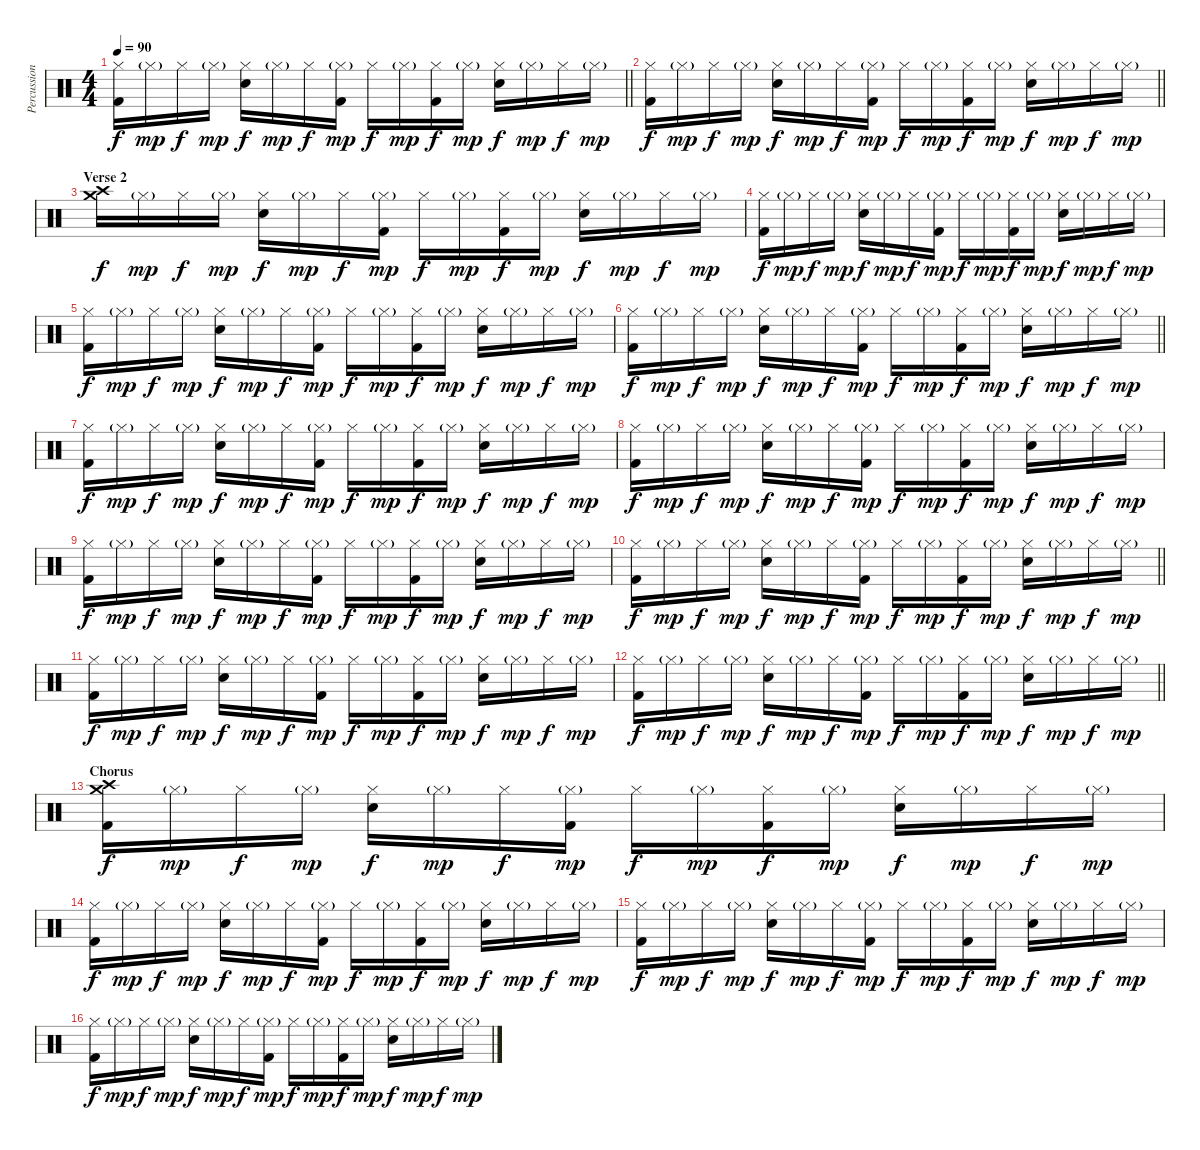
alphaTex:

\track ("Percussion" "Percussion") {instrument percussion}
\staff {score}
\articulation defaults
\ts (4 4)
\tempo 90
\clef neutral
\barLineRight lightlight
\ks c
("Hi-Hat (closed)" "Kick (hit) 2").16{dy f} "Hi-Hat (closed)"{g}.16{dy mp} "Hi-Hat (closed)".16{dy f} "Hi-Hat (closed)"{g}.16{dy mp} ("Hi-Hat (closed)" "Electric Snare (hit)").16{dy f} "Hi-Hat (closed)"{g}.16{dy mp} "Hi-Hat (closed)".16{dy f} ("Hi-Hat (closed)"{g} "Kick (hit) 2").16{dy mp} "Hi-Hat (closed)".16{dy f} "Hi-Hat (closed)"{g}.16{dy mp} ("Hi-Hat (closed)" "Kick (hit) 2").16{dy f} "Hi-Hat (closed)"{g}.16{dy mp} ("Hi-Hat (closed)" "Electric Snare (hit)").16{dy f} "Hi-Hat (closed)"{g}.16{dy mp} "Hi-Hat (closed)".16{dy f} "Hi-Hat (closed)"{g}.16{dy mp} |
\barLineRight lightlight
("Hi-Hat (closed)" "Kick (hit) 2").16{dy f} "Hi-Hat (closed)"{g}.16{dy mp} "Hi-Hat (closed)".16{dy f} "Hi-Hat (closed)"{g}.16{dy mp} ("Hi-Hat (closed)" "Electric Snare (hit)").16{dy f} "Hi-Hat (closed)"{g}.16{dy mp} "Hi-Hat (closed)".16{dy f} ("Hi-Hat (closed)"{g} "Kick (hit) 2").16{dy mp} "Hi-Hat (closed)".16{dy f} "Hi-Hat (closed)"{g}.16{dy mp} ("Hi-Hat (closed)" "Kick (hit) 2").16{dy f} "Hi-Hat (closed)"{g}.16{dy mp} ("Hi-Hat (closed)" "Electric Snare (hit)").16{dy f} "Hi-Hat (closed)"{g}.16{dy mp} "Hi-Hat (closed)".16{dy f} "Hi-Hat (closed)"{g}.16{dy mp} |
\section ("" "Verse 2")
("Crash medium (hit)" "Crash high (hit)").16{dy f} "Hi-Hat (closed)"{g}.16{dy mp} "Hi-Hat (closed)".16{dy f} "Hi-Hat (closed)"{g}.16{dy mp} ("Hi-Hat (closed)" "Electric Snare (hit)").16{dy f} "Hi-Hat (closed)"{g}.16{dy mp} "Hi-Hat (closed)".16{dy f} ("Hi-Hat (closed)"{g} "Kick (hit) 2").16{dy mp} "Hi-Hat (closed)".16{dy f} "Hi-Hat (closed)"{g}.16{dy mp} ("Hi-Hat (closed)" "Kick (hit) 2").16{dy f} "Hi-Hat (closed)"{g}.16{dy mp} ("Hi-Hat (closed)" "Electric Snare (hit)").16{dy f} "Hi-Hat (closed)"{g}.16{dy mp} "Hi-Hat (closed)".16{dy f} "Hi-Hat (closed)"{g}.16{dy mp} |
("Hi-Hat (closed)" "Kick (hit) 2").16{dy f} "Hi-Hat (closed)"{g}.16{dy mp} "Hi-Hat (closed)".16{dy f} "Hi-Hat (closed)"{g}.16{dy mp} ("Hi-Hat (closed)" "Electric Snare (hit)").16{dy f} "Hi-Hat (closed)"{g}.16{dy mp} "Hi-Hat (closed)".16{dy f} ("Hi-Hat (closed)"{g} "Kick (hit) 2").16{dy mp} "Hi-Hat (closed)".16{dy f} "Hi-Hat (closed)"{g}.16{dy mp} ("Hi-Hat (closed)" "Kick (hit) 2").16{dy f} "Hi-Hat (closed)"{g}.16{dy mp} ("Hi-Hat (closed)" "Electric Snare (hit)").16{dy f} "Hi-Hat (closed)"{g}.16{dy mp} "Hi-Hat (closed)".16{dy f} "Hi-Hat (closed)"{g}.16{dy mp} |
("Hi-Hat (closed)" "Kick (hit) 2").16{dy f} "Hi-Hat (closed)"{g}.16{dy mp} "Hi-Hat (closed)".16{dy f} "Hi-Hat (closed)"{g}.16{dy mp} ("Hi-Hat (closed)" "Electric Snare (hit)").16{dy f} "Hi-Hat (closed)"{g}.16{dy mp} "Hi-Hat (closed)".16{dy f} ("Hi-Hat (closed)"{g} "Kick (hit) 2").16{dy mp} "Hi-Hat (closed)".16{dy f} "Hi-Hat (closed)"{g}.16{dy mp} ("Hi-Hat (closed)" "Kick (hit) 2").16{dy f} "Hi-Hat (closed)"{g}.16{dy mp} ("Hi-Hat (closed)" "Electric Snare (hit)").16{dy f} "Hi-Hat (closed)"{g}.16{dy mp} "Hi-Hat (closed)".16{dy f} "Hi-Hat (closed)"{g}.16{dy mp} |
\barLineRight lightlight
("Hi-Hat (closed)" "Kick (hit) 2").16{dy f} "Hi-Hat (closed)"{g}.16{dy mp} "Hi-Hat (closed)".16{dy f} "Hi-Hat (closed)"{g}.16{dy mp} ("Hi-Hat (closed)" "Electric Snare (hit)").16{dy f} "Hi-Hat (closed)"{g}.16{dy mp} "Hi-Hat (closed)".16{dy f} ("Hi-Hat (closed)"{g} "Kick (hit) 2").16{dy mp} "Hi-Hat (closed)".16{dy f} "Hi-Hat (closed)"{g}.16{dy mp} ("Hi-Hat (closed)" "Kick (hit) 2").16{dy f} "Hi-Hat (closed)"{g}.16{dy mp} ("Hi-Hat (closed)" "Electric Snare (hit)").16{dy f} "Hi-Hat (closed)"{g}.16{dy mp} "Hi-Hat (closed)".16{dy f} "Hi-Hat (closed)"{g}.16{dy mp} |
("Hi-Hat (closed)" "Kick (hit) 2").16{dy f} "Hi-Hat (closed)"{g}.16{dy mp} "Hi-Hat (closed)".16{dy f} "Hi-Hat (closed)"{g}.16{dy mp} ("Hi-Hat (closed)" "Electric Snare (hit)").16{dy f} "Hi-Hat (closed)"{g}.16{dy mp} "Hi-Hat (closed)".16{dy f} ("Hi-Hat (closed)"{g} "Kick (hit) 2").16{dy mp} "Hi-Hat (closed)".16{dy f} "Hi-Hat (closed)"{g}.16{dy mp} ("Hi-Hat (closed)" "Kick (hit) 2").16{dy f} "Hi-Hat (closed)"{g}.16{dy mp} ("Hi-Hat (closed)" "Electric Snare (hit)").16{dy f} "Hi-Hat (closed)"{g}.16{dy mp} "Hi-Hat (closed)".16{dy f} "Hi-Hat (closed)"{g}.16{dy mp} |
("Hi-Hat (closed)" "Kick (hit) 2").16{dy f} "Hi-Hat (closed)"{g}.16{dy mp} "Hi-Hat (closed)".16{dy f} "Hi-Hat (closed)"{g}.16{dy mp} ("Hi-Hat (closed)" "Electric Snare (hit)").16{dy f} "Hi-Hat (closed)"{g}.16{dy mp} "Hi-Hat (closed)".16{dy f} ("Hi-Hat (closed)"{g} "Kick (hit) 2").16{dy mp} "Hi-Hat (closed)".16{dy f} "Hi-Hat (closed)"{g}.16{dy mp} ("Hi-Hat (closed)" "Kick (hit) 2").16{dy f} "Hi-Hat (closed)"{g}.16{dy mp} ("Hi-Hat (closed)" "Electric Snare (hit)").16{dy f} "Hi-Hat (closed)"{g}.16{dy mp} "Hi-Hat (closed)".16{dy f} "Hi-Hat (closed)"{g}.16{dy mp} |
("Hi-Hat (closed)" "Kick (hit) 2").16{dy f} "Hi-Hat (closed)"{g}.16{dy mp} "Hi-Hat (closed)".16{dy f} "Hi-Hat (closed)"{g}.16{dy mp} ("Hi-Hat (closed)" "Electric Snare (hit)").16{dy f} "Hi-Hat (closed)"{g}.16{dy mp} "Hi-Hat (closed)".16{dy f} ("Hi-Hat (closed)"{g} "Kick (hit) 2").16{dy mp} "Hi-Hat (closed)".16{dy f} "Hi-Hat (closed)"{g}.16{dy mp} ("Hi-Hat (closed)" "Kick (hit) 2").16{dy f} "Hi-Hat (closed)"{g}.16{dy mp} ("Hi-Hat (closed)" "Electric Snare (hit)").16{dy f} "Hi-Hat (closed)"{g}.16{dy mp} "Hi-Hat (closed)".16{dy f} "Hi-Hat (closed)"{g}.16{dy mp} |
\barLineRight lightlight
("Hi-Hat (closed)" "Kick (hit) 2").16{dy f} "Hi-Hat (closed)"{g}.16{dy mp} "Hi-Hat (closed)".16{dy f} "Hi-Hat (closed)"{g}.16{dy mp} ("Hi-Hat (closed)" "Electric Snare (hit)").16{dy f} "Hi-Hat (closed)"{g}.16{dy mp} "Hi-Hat (closed)".16{dy f} ("Hi-Hat (closed)"{g} "Kick (hit) 2").16{dy mp} "Hi-Hat (closed)".16{dy f} "Hi-Hat (closed)"{g}.16{dy mp} ("Hi-Hat (closed)" "Kick (hit) 2").16{dy f} "Hi-Hat (closed)"{g}.16{dy mp} ("Hi-Hat (closed)" "Electric Snare (hit)").16{dy f} "Hi-Hat (closed)"{g}.16{dy mp} "Hi-Hat (closed)".16{dy f} "Hi-Hat (closed)"{g}.16{dy mp} |
("Hi-Hat (closed)" "Kick (hit) 2").16{dy f} "Hi-Hat (closed)"{g}.16{dy mp} "Hi-Hat (closed)".16{dy f} "Hi-Hat (closed)"{g}.16{dy mp} ("Hi-Hat (closed)" "Electric Snare (hit)").16{dy f} "Hi-Hat (closed)"{g}.16{dy mp} "Hi-Hat (closed)".16{dy f} ("Hi-Hat (closed)"{g} "Kick (hit) 2").16{dy mp} "Hi-Hat (closed)".16{dy f} "Hi-Hat (closed)"{g}.16{dy mp} ("Hi-Hat (closed)" "Kick (hit) 2").16{dy f} "Hi-Hat (closed)"{g}.16{dy mp} ("Hi-Hat (closed)" "Electric Snare (hit)").16{dy f} "Hi-Hat (closed)"{g}.16{dy mp} "Hi-Hat (closed)".16{dy f} "Hi-Hat (closed)"{g}.16{dy mp} |
\barLineRight lightlight
("Hi-Hat (closed)" "Kick (hit) 2").16{dy f} "Hi-Hat (closed)"{g}.16{dy mp} "Hi-Hat (closed)".16{dy f} "Hi-Hat (closed)"{g}.16{dy mp} ("Hi-Hat (closed)" "Electric Snare (hit)").16{dy f} "Hi-Hat (closed)"{g}.16{dy mp} "Hi-Hat (closed)".16{dy f} ("Hi-Hat (closed)"{g} "Kick (hit) 2").16{dy mp} "Hi-Hat (closed)".16{dy f} "Hi-Hat (closed)"{g}.16{dy mp} ("Hi-Hat (closed)" "Kick (hit) 2").16{dy f} "Hi-Hat (closed)"{g}.16{dy mp} ("Hi-Hat (closed)" "Electric Snare (hit)").16{dy f} "Hi-Hat (closed)"{g}.16{dy mp} "Hi-Hat (closed)".16{dy f} "Hi-Hat (closed)"{g}.16{dy mp} |
\section ("" "Chorus")
("Crash medium (hit)" "Crash high (hit)" "Kick (hit) 2").16{dy f} "Hi-Hat (closed)"{g}.16{dy mp} "Hi-Hat (closed)".16{dy f} "Hi-Hat (closed)"{g}.16{dy mp} ("Hi-Hat (closed)" "Electric Snare (hit)").16{dy f} "Hi-Hat (closed)"{g}.16{dy mp} "Hi-Hat (closed)".16{dy f} ("Hi-Hat (closed)"{g} "Kick (hit) 2").16{dy mp} "Hi-Hat (closed)".16{dy f} "Hi-Hat (closed)"{g}.16{dy mp} ("Hi-Hat (closed)" "Kick (hit) 2").16{dy f} "Hi-Hat (closed)"{g}.16{dy mp} ("Hi-Hat (closed)" "Electric Snare (hit)").16{dy f} "Hi-Hat (closed)"{g}.16{dy mp} "Hi-Hat (closed)".16{dy f} "Hi-Hat (closed)"{g}.16{dy mp} |
("Hi-Hat (closed)" "Kick (hit) 2").16{dy f} "Hi-Hat (closed)"{g}.16{dy mp} "Hi-Hat (closed)".16{dy f} "Hi-Hat (closed)"{g}.16{dy mp} ("Hi-Hat (closed)" "Electric Snare (hit)").16{dy f} "Hi-Hat (closed)"{g}.16{dy mp} "Hi-Hat (closed)".16{dy f} ("Hi-Hat (closed)"{g} "Kick (hit) 2").16{dy mp} "Hi-Hat (closed)".16{dy f} "Hi-Hat (closed)"{g}.16{dy mp} ("Hi-Hat (closed)" "Kick (hit) 2").16{dy f} "Hi-Hat (closed)"{g}.16{dy mp} ("Hi-Hat (closed)" "Electric Snare (hit)").16{dy f} "Hi-Hat (closed)"{g}.16{dy mp} "Hi-Hat (closed)".16{dy f} "Hi-Hat (closed)"{g}.16{dy mp} |
("Hi-Hat (closed)" "Kick (hit) 2").16{dy f} "Hi-Hat (closed)"{g}.16{dy mp} "Hi-Hat (closed)".16{dy f} "Hi-Hat (closed)"{g}.16{dy mp} ("Hi-Hat (closed)" "Electric Snare (hit)").16{dy f} "Hi-Hat (closed)"{g}.16{dy mp} "Hi-Hat (closed)".16{dy f} ("Hi-Hat (closed)"{g} "Kick (hit) 2").16{dy mp} "Hi-Hat (closed)".16{dy f} "Hi-Hat (closed)"{g}.16{dy mp} ("Hi-Hat (closed)" "Kick (hit) 2").16{dy f} "Hi-Hat (closed)"{g}.16{dy mp} ("Hi-Hat (closed)" "Electric Snare (hit)").16{dy f} "Hi-Hat (closed)"{g}.16{dy mp} "Hi-Hat (closed)".16{dy f} "Hi-Hat (closed)"{g}.16{dy mp} |
("Hi-Hat (closed)" "Kick (hit) 2").16{dy f} "Hi-Hat (closed)"{g}.16{dy mp} "Hi-Hat (closed)".16{dy f} "Hi-Hat (closed)"{g}.16{dy mp} ("Hi-Hat (closed)" "Electric Snare (hit)").16{dy f} "Hi-Hat (closed)"{g}.16{dy mp} "Hi-Hat (closed)".16{dy f} ("Hi-Hat (closed)"{g} "Kick (hit) 2").16{dy mp} "Hi-Hat (closed)".16{dy f} "Hi-Hat (closed)"{g}.16{dy mp} ("Hi-Hat (closed)" "Kick (hit) 2").16{dy f} "Hi-Hat (closed)"{g}.16{dy mp} ("Hi-Hat (closed)" "Electric Snare (hit)").16{dy f} "Hi-Hat (closed)"{g}.16{dy mp} "Hi-Hat (closed)".16{dy f} "Hi-Hat (closed)"{g}.16{dy mp}
